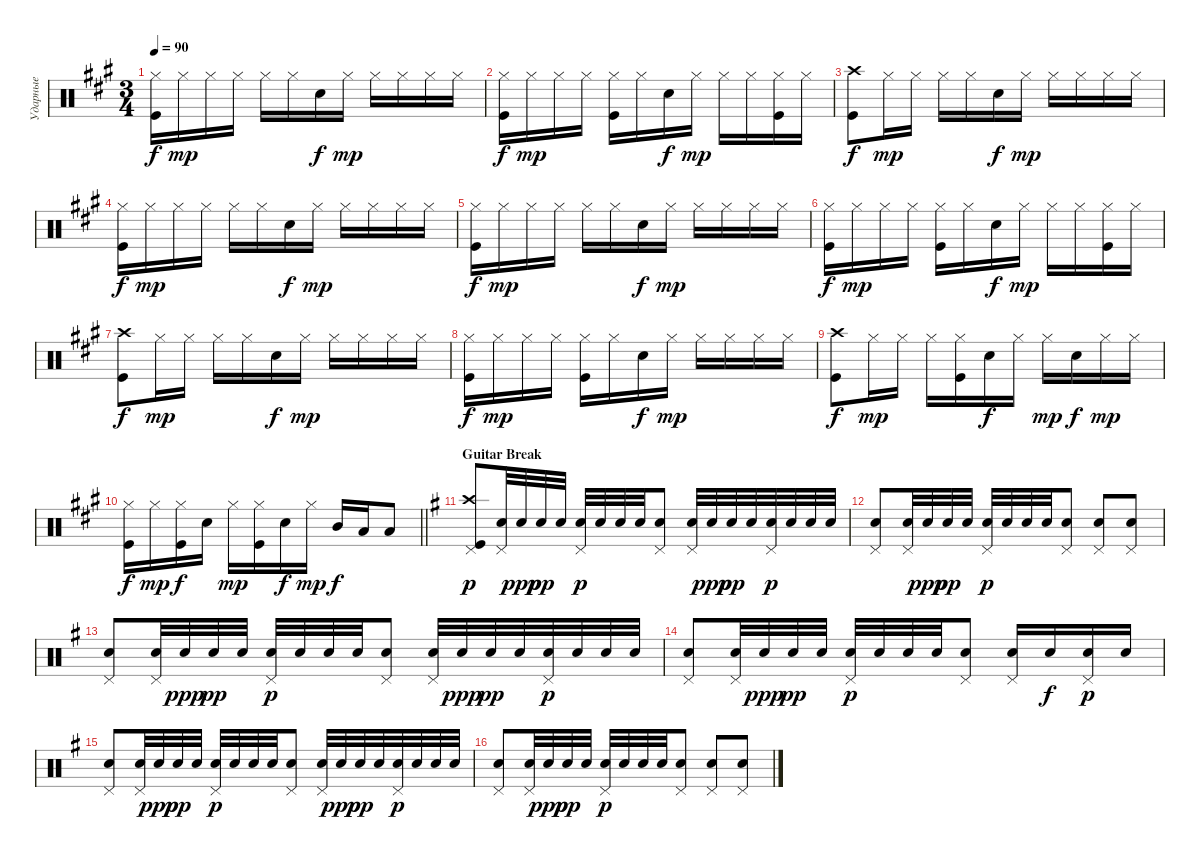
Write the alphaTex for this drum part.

\track ("Ударные" "Ударные") {instrument percussion}
\staff {score}
\articulation defaults
\ts (3 4)
\tempo 90
\clef neutral
\ks f#minor
("Hi-Hat (closed)" "Kick (hit)").16{dy f} "Hi-Hat (closed)".16{dy mp} "Hi-Hat (closed)".16 "Hi-Hat (closed)".16 "Hi-Hat (closed)".16 "Hi-Hat (closed)".16 "Snare (hit) 2".16{dy f} "Hi-Hat (closed)".16{dy mp} "Hi-Hat (closed)".16 "Hi-Hat (closed)".16 "Hi-Hat (closed)".16 "Hi-Hat (closed)".16 |
("Hi-Hat (closed)" "Kick (hit)").16{dy f} "Hi-Hat (closed)".16{dy mp} "Hi-Hat (closed)".16 "Hi-Hat (closed)".16 ("Hi-Hat (closed)" "Kick (hit)").16 "Hi-Hat (closed)".16 "Snare (hit) 2".16{dy f} "Hi-Hat (closed)".16{dy mp} "Hi-Hat (closed)".16 "Hi-Hat (closed)".16 ("Hi-Hat (closed)" "Kick (hit)").16 "Hi-Hat (closed)".16 |
("Crash high (hit)" "Kick (hit)").8{dy f} "Hi-Hat (closed)".16{dy mp} "Hi-Hat (closed)".16 "Hi-Hat (closed)".16 "Hi-Hat (closed)".16 "Snare (hit) 2".16{dy f} "Hi-Hat (closed)".16{dy mp} "Hi-Hat (closed)".16 "Hi-Hat (closed)".16 "Hi-Hat (closed)".16 "Hi-Hat (closed)".16 |
("Hi-Hat (closed)" "Kick (hit)").16{dy f} "Hi-Hat (closed)".16{dy mp} "Hi-Hat (closed)".16 "Hi-Hat (closed)".16 "Hi-Hat (closed)".16 "Hi-Hat (closed)".16 "Snare (hit) 2".16{dy f} "Hi-Hat (closed)".16{dy mp} "Hi-Hat (closed)".16 "Hi-Hat (closed)".16 "Hi-Hat (closed)".16 "Hi-Hat (closed)".16 |
("Hi-Hat (closed)" "Kick (hit)").16{dy f} "Hi-Hat (closed)".16{dy mp} "Hi-Hat (closed)".16 "Hi-Hat (closed)".16 "Hi-Hat (closed)".16 "Hi-Hat (closed)".16 "Snare (hit) 2".16{dy f} "Hi-Hat (closed)".16{dy mp} "Hi-Hat (closed)".16 "Hi-Hat (closed)".16 "Hi-Hat (closed)".16 "Hi-Hat (closed)".16 |
("Hi-Hat (closed)" "Kick (hit)").16{dy f} "Hi-Hat (closed)".16{dy mp} "Hi-Hat (closed)".16 "Hi-Hat (closed)".16 ("Hi-Hat (closed)" "Kick (hit)").16 "Hi-Hat (closed)".16 "Snare (hit) 2".16{dy f} "Hi-Hat (closed)".16{dy mp} "Hi-Hat (closed)".16 "Hi-Hat (closed)".16 ("Hi-Hat (closed)" "Kick (hit)").16 "Hi-Hat (closed)".16 |
("Crash high (hit)" "Kick (hit)").8{dy f} "Hi-Hat (closed)".16{dy mp} "Hi-Hat (closed)".16 "Hi-Hat (closed)".16 "Hi-Hat (closed)".16 "Snare (hit) 2".16{dy f} "Hi-Hat (closed)".16{dy mp} "Hi-Hat (closed)".16 "Hi-Hat (closed)".16 "Hi-Hat (closed)".16 "Hi-Hat (closed)".16 |
("Hi-Hat (closed)" "Kick (hit)").16{dy f} "Hi-Hat (closed)".16{dy mp} "Hi-Hat (closed)".16 "Hi-Hat (closed)".16 ("Hi-Hat (closed)" "Kick (hit)").16 "Hi-Hat (closed)".16 "Snare (hit) 2".16{dy f} "Hi-Hat (closed)".16{dy mp} "Hi-Hat (closed)".16 "Hi-Hat (closed)".16 "Hi-Hat (closed)".16 "Hi-Hat (closed)".16 |
("Crash high (hit)" "Kick (hit)").8{dy f} "Hi-Hat (closed)".16{dy mp} "Hi-Hat (closed)".16 "Hi-Hat (closed)".16 ("Hi-Hat (closed)" "Kick (hit)").16 "Snare (hit) 2".16{dy f} "Hi-Hat (closed)".16 "Hi-Hat (closed)".16{dy mp} "Snare (hit) 2".16{dy f} "Hi-Hat (closed)".16{dy mp} "Hi-Hat (closed)".16 |
\barLineRight lightlight
("Hi-Hat (closed)" "Kick (hit)").16{dy f} "Hi-Hat (closed)".16{dy mp} ("Hi-Hat (closed)" "Kick (hit)").16{dy f} "Snare (hit) 2".16 "Hi-Hat (closed)".16{dy mp} ("Hi-Hat (closed)" "Kick (hit)").16 "Snare (hit) 2".16{dy f} "Hi-Hat (closed)".16{dy mp} "Mid Tom (hit)".16{dy f} "Low Tom (hit)".16 "Low Tom (hit)".8 |
\section ("" "Guitar Break")
\ks eminor
("Kick (hit)" "Crash high (hit)" "Pedal Hi-Hat (hit)").8{dy p} ("Snare (hit) 2" "Pedal Hi-Hat (hit)").32 "Snare (hit) 2".32{dy ppp} "Snare (hit) 2".32{dy pp} "Snare (hit) 2".32 ("Snare (hit) 2" "Pedal Hi-Hat (hit)").32{dy p} "Snare (hit) 2".32 "Snare (hit) 2".32 "Snare (hit) 2".32 ("Snare (hit) 2" "Pedal Hi-Hat (hit)").8 ("Snare (hit) 2" "Pedal Hi-Hat (hit)").32 "Snare (hit) 2".32{dy ppp} "Snare (hit) 2".32{dy pp} "Snare (hit) 2".32 ("Snare (hit) 2" "Pedal Hi-Hat (hit)").32{dy p} "Snare (hit) 2".32 "Snare (hit) 2".32 "Snare (hit) 2".32 |
("Snare (hit) 2" "Pedal Hi-Hat (hit)").8 ("Snare (hit) 2" "Pedal Hi-Hat (hit)").32 "Snare (hit) 2".32{dy ppp} "Snare (hit) 2".32{dy pp} "Snare (hit) 2".32 ("Snare (hit) 2" "Pedal Hi-Hat (hit)").32{dy p} "Snare (hit) 2".32 "Snare (hit) 2".32 "Snare (hit) 2".32 ("Snare (hit) 2" "Pedal Hi-Hat (hit)").8 ("Snare (hit) 2" "Pedal Hi-Hat (hit)").8 ("Snare (hit) 2" "Pedal Hi-Hat (hit)").8 |
("Snare (hit) 2" "Pedal Hi-Hat (hit)").8 ("Snare (hit) 2" "Pedal Hi-Hat (hit)").32 "Snare (hit) 2".32{dy ppp} "Snare (hit) 2".32{dy pp} "Snare (hit) 2".32 ("Snare (hit) 2" "Pedal Hi-Hat (hit)").32{dy p} "Snare (hit) 2".32 "Snare (hit) 2".32 "Snare (hit) 2".32 ("Snare (hit) 2" "Pedal Hi-Hat (hit)").8 ("Snare (hit) 2" "Pedal Hi-Hat (hit)").32 "Snare (hit) 2".32{dy ppp} "Snare (hit) 2".32{dy pp} "Snare (hit) 2".32 ("Snare (hit) 2" "Pedal Hi-Hat (hit)").32{dy p} "Snare (hit) 2".32 "Snare (hit) 2".32 "Snare (hit) 2".32 |
("Snare (hit) 2" "Pedal Hi-Hat (hit)").8 ("Snare (hit) 2" "Pedal Hi-Hat (hit)").32 "Snare (hit) 2".32{dy ppp} "Snare (hit) 2".32{dy pp} "Snare (hit) 2".32 ("Snare (hit) 2" "Pedal Hi-Hat (hit)").32{dy p} "Snare (hit) 2".32 "Snare (hit) 2".32 "Snare (hit) 2".32 ("Snare (hit) 2" "Pedal Hi-Hat (hit)").8 ("Snare (hit) 2" "Pedal Hi-Hat (hit)").16 "Snare (hit) 2".16{dy f} ("Snare (hit) 2" "Pedal Hi-Hat (hit)").16{dy p} "Snare (hit) 2".16 |
("Snare (hit) 2" "Pedal Hi-Hat (hit)").8 ("Snare (hit) 2" "Pedal Hi-Hat (hit)").32 "Snare (hit) 2".32{dy ppp} "Snare (hit) 2".32{dy pp} "Snare (hit) 2".32 ("Snare (hit) 2" "Pedal Hi-Hat (hit)").32{dy p} "Snare (hit) 2".32 "Snare (hit) 2".32 "Snare (hit) 2".32 ("Snare (hit) 2" "Pedal Hi-Hat (hit)").8 ("Snare (hit) 2" "Pedal Hi-Hat (hit)").32 "Snare (hit) 2".32{dy ppp} "Snare (hit) 2".32{dy pp} "Snare (hit) 2".32 ("Snare (hit) 2" "Pedal Hi-Hat (hit)").32{dy p} "Snare (hit) 2".32 "Snare (hit) 2".32 "Snare (hit) 2".32 |
("Snare (hit) 2" "Pedal Hi-Hat (hit)").8 ("Snare (hit) 2" "Pedal Hi-Hat (hit)").32 "Snare (hit) 2".32{dy ppp} "Snare (hit) 2".32{dy pp} "Snare (hit) 2".32 ("Snare (hit) 2" "Pedal Hi-Hat (hit)").32{dy p} "Snare (hit) 2".32 "Snare (hit) 2".32 "Snare (hit) 2".32 ("Snare (hit) 2" "Pedal Hi-Hat (hit)").8 ("Snare (hit) 2" "Pedal Hi-Hat (hit)").8 ("Snare (hit) 2" "Pedal Hi-Hat (hit)").8
